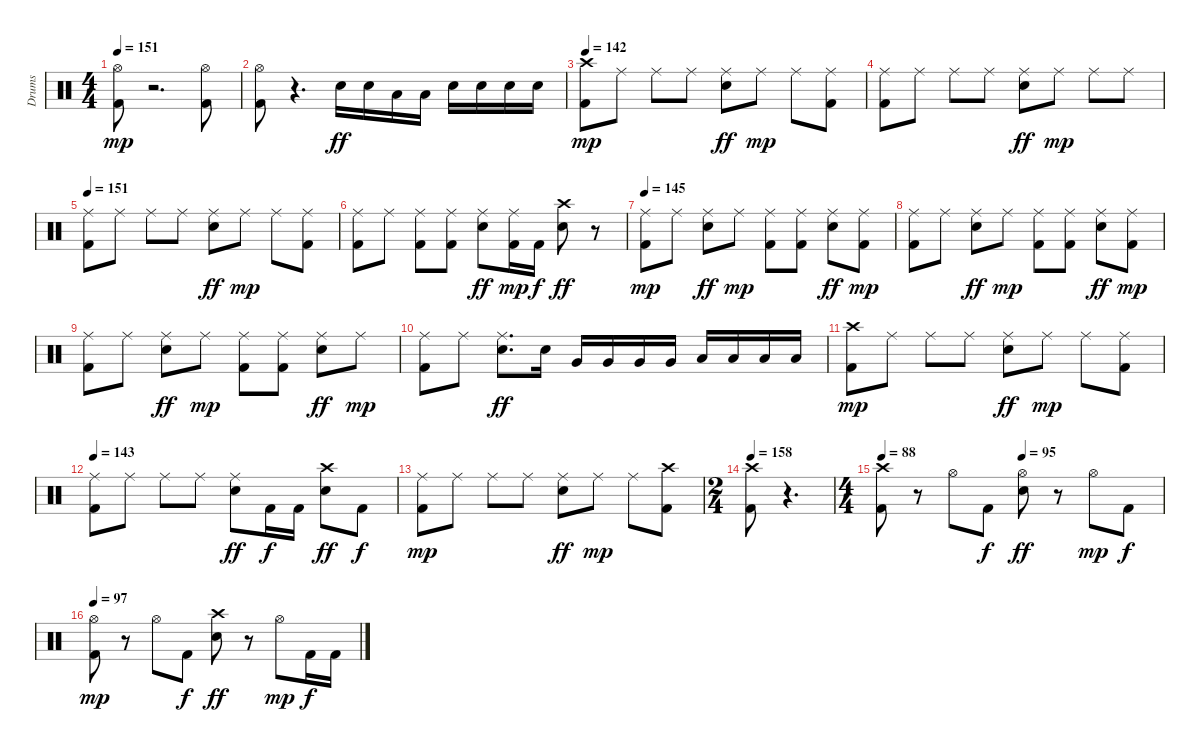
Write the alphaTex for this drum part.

\track ("Drums" "Drums") {instrument percussion}
\staff {score}
\articulation defaults
\ts (4 4)
\tempo 151
\clef neutral
\ks c
("Hi-Hat (open)" "Kick (hit) 2").8{dy mp volume 16} r.2{d volume 0} ("Hi-Hat (open)" "Kick (hit) 2").8{volume 16} |
("Hi-Hat (open)" "Kick (hit) 2").8 r.4{d volume 0} "Electric Snare (hit)".16{dy ff volume 16} "Electric Snare (hit)".16 "Low Floor Tom (hit)".16 "Low Floor Tom (hit)".16 "Electric Snare (hit)".16 "Electric Snare (hit)".16 "Electric Snare (hit)".16 "Electric Snare (hit)".16 |
\tempo 142
("Crash high (hit)" "Kick (hit) 2").8{dy mp} "Ride (middle)".8 "Ride (middle)".8 "Ride (middle)".8 ("Ride (middle)" "Electric Snare (hit)").8{dy ff} "Ride (middle)".8{dy mp} "Ride (middle)".8 ("Ride (middle)" "Kick (hit) 2").8 |
("Ride (middle)" "Kick (hit) 2").8 "Ride (middle)".8 "Ride (middle)".8 "Ride (middle)".8 ("Ride (middle)" "Electric Snare (hit)").8{dy ff} "Ride (middle)".8{dy mp} "Ride (middle)".8 "Ride (middle)".8 |
\tempo 151
("Ride (middle)" "Kick (hit) 2").8 "Ride (middle)".8 "Ride (middle)".8 "Ride (middle)".8 ("Ride (middle)" "Electric Snare (hit)").8{dy ff} "Ride (middle)".8{dy mp} "Ride (middle)".8 ("Ride (middle)" "Kick (hit) 2").8 |
("Ride (middle)" "Kick (hit) 2").8 "Ride (middle)".8 ("Ride (middle)" "Kick (hit) 2").8 ("Ride (middle)" "Kick (hit) 2").8 ("Ride (middle)" "Electric Snare (hit)").8{dy ff} ("Ride (middle)" "Kick (hit) 2").16{dy mp} "Kick (hit) 2".16{dy f} ("Crash high (hit)" "Electric Snare (hit)").8{dy ff} r.8 |
\tempo 145
("Ride (middle)" "Kick (hit) 2").8{dy mp} "Ride (middle)".8 ("Ride (middle)" "Electric Snare (hit)").8{dy ff} "Ride (middle)".8{dy mp} ("Ride (middle)" "Kick (hit) 2").8 ("Ride (middle)" "Kick (hit) 2").8 ("Ride (middle)" "Electric Snare (hit)").8{dy ff} ("Ride (middle)" "Kick (hit) 2").8{dy mp} |
("Ride (middle)" "Kick (hit) 2").8 "Ride (middle)".8 ("Ride (middle)" "Electric Snare (hit)").8{dy ff} "Ride (middle)".8{dy mp} ("Ride (middle)" "Kick (hit) 2").8 ("Ride (middle)" "Kick (hit) 2").8 ("Ride (middle)" "Electric Snare (hit)").8{dy ff} ("Ride (middle)" "Kick (hit) 2").8{dy mp} |
("Ride (middle)" "Kick (hit) 2").8 "Ride (middle)".8 ("Ride (middle)" "Electric Snare (hit)").8{dy ff} "Ride (middle)".8{dy mp} ("Ride (middle)" "Kick (hit) 2").8 ("Ride (middle)" "Kick (hit) 2").8 ("Ride (middle)" "Electric Snare (hit)").8{dy ff} "Ride (middle)".8{dy mp} |
("Ride (middle)" "Kick (hit) 2").8 "Ride (middle)".8 ("Ride (middle)" "Electric Snare (hit)").8{d dy ff} "Electric Snare (hit)".16 "Very Low Tom (hit)".16 "Very Low Tom (hit)".16 "Very Low Tom (hit)".16 "Very Low Tom (hit)".16 "Low Floor Tom (hit)".16 "Low Floor Tom (hit)".16 "Low Floor Tom (hit)".16 "Low Floor Tom (hit)".16 |
("Crash high (hit)" "Kick (hit) 2").8{dy mp} "Ride (middle)".8 "Ride (middle)".8 "Ride (middle)".8 ("Ride (middle)" "Electric Snare (hit)").8{dy ff} "Ride (middle)".8{dy mp} "Ride (middle)".8 ("Ride (middle)" "Kick (hit) 2").8 |
\tempo 143
("Ride (middle)" "Kick (hit) 2").8 "Ride (middle)".8 "Ride (middle)".8 "Ride (middle)".8 ("Ride (middle)" "Electric Snare (hit)").8{dy ff} "Kick (hit) 2".16{dy f} "Kick (hit) 2".16 ("Crash high (hit)" "Electric Snare (hit)").8{dy ff} "Kick (hit) 2".8{dy f} |
("Ride (middle)" "Kick (hit) 2").8{dy mp} "Ride (middle)".8 "Ride (middle)".8 "Ride (middle)".8 ("Ride (middle)" "Electric Snare (hit)").8{dy ff} "Ride (middle)".8{dy mp} "Ride (middle)".8 ("Crash high (hit)" "Kick (hit) 2").8 |
\ts (2 4)
\tempo 158
("Crash high (hit)" "Kick (hit) 2").8 r.4{d} |
\ts (4 4)
\tempo 88
\tempo (95 0.5)
("Crash high (hit)" "Kick (hit) 2").8 r.8 "Hi-Hat (open)".8 "Kick (hit) 2".8{dy f} ("Hi-Hat (open)" "Electric Snare (hit)").8{dy ff} r.8 "Hi-Hat (open)".8{dy mp} "Kick (hit) 2".8{dy f} |
\tempo 97
("Hi-Hat (open)" "Kick (hit) 2").8{dy mp} r.8 "Hi-Hat (open)".8 "Kick (hit) 2".8{dy f} ("Crash high (hit)" "Electric Snare (hit)").8{dy ff} r.8 "Hi-Hat (open)".8{dy mp} "Kick (hit) 2".16{dy f} "Kick (hit) 2".16
